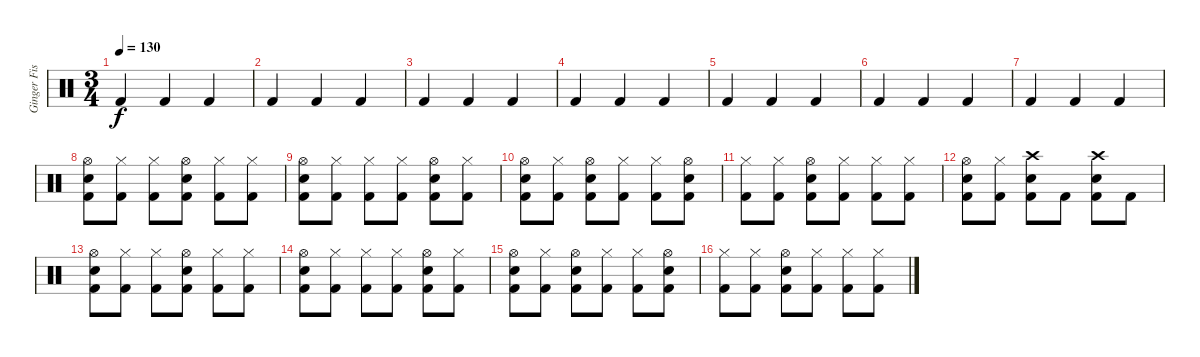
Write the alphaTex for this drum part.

\track ("Ginger Fish" "Ginger Fis") {instrument percussion}
\staff {score}
\articulation defaults
\ts (3 4)
\tempo 130
\clef neutral
\ks c "Kick (hit) 2".4{dy f} "Kick (hit) 2".4 "Kick (hit) 2".4
|
"Kick (hit) 2".4 "Kick (hit) 2".4 "Kick (hit) 2".4 |
"Kick (hit) 2".4 "Kick (hit) 2".4 "Kick (hit) 2".4 |
"Kick (hit) 2".4 "Kick (hit) 2".4 "Kick (hit) 2".4 |
"Kick (hit) 2".4 "Kick (hit) 2".4 "Kick (hit) 2".4 |
"Kick (hit) 2".4 "Kick (hit) 2".4 "Kick (hit) 2".4 |
"Kick (hit) 2".4 "Kick (hit) 2".4 "Kick (hit) 2".4 |
("Hi-Hat (open)" "Snare (hit) 2" "Kick (hit) 2").8 ("Hi-Hat (closed)" "Kick (hit) 2").8 ("Hi-Hat (closed)" "Kick (hit) 2").8 ("Hi-Hat (open)" "Snare (hit) 2" "Kick (hit) 2").8 ("Hi-Hat (closed)" "Kick (hit) 2").8 ("Hi-Hat (closed)" "Kick (hit) 2").8 |
("Hi-Hat (open)" "Snare (hit) 2" "Kick (hit) 2").8 ("Hi-Hat (closed)" "Kick (hit) 2").8 ("Hi-Hat (closed)" "Kick (hit) 2").8 ("Hi-Hat (closed)" "Kick (hit) 2").8 ("Hi-Hat (open)" "Snare (hit) 2" "Kick (hit) 2").8 ("Hi-Hat (closed)" "Kick (hit) 2").8 |
("Hi-Hat (open)" "Snare (hit) 2" "Kick (hit) 2").8 ("Hi-Hat (closed)" "Kick (hit) 2").8 ("Hi-Hat (open)" "Snare (hit) 2" "Kick (hit) 2").8 ("Hi-Hat (closed)" "Kick (hit) 2").8 ("Hi-Hat (closed)" "Kick (hit) 2").8 ("Hi-Hat (open)" "Snare (hit) 2" "Kick (hit) 2").8 |
("Hi-Hat (closed)" "Kick (hit) 2").8 ("Hi-Hat (closed)" "Kick (hit) 2").8 ("Hi-Hat (open)" "Snare (hit) 2" "Kick (hit) 2").8 ("Hi-Hat (closed)" "Kick (hit) 2").8 ("Hi-Hat (closed)" "Kick (hit) 2").8 ("Hi-Hat (closed)" "Kick (hit) 2").8 |
("Hi-Hat (open)" "Snare (hit) 2" "Kick (hit) 2").8 ("Hi-Hat (closed)" "Kick (hit) 2").8 ("Crash high (hit)" "Snare (hit) 2" "Kick (hit) 2").8 "Kick (hit) 2".8 ("Crash high (hit)" "Snare (hit) 2" "Kick (hit) 2").8 "Kick (hit) 2".8 |
("Hi-Hat (open)" "Snare (hit) 2" "Kick (hit) 2").8 ("Hi-Hat (closed)" "Kick (hit) 2").8 ("Hi-Hat (closed)" "Kick (hit) 2").8 ("Hi-Hat (open)" "Snare (hit) 2" "Kick (hit) 2").8 ("Hi-Hat (closed)" "Kick (hit) 2").8 ("Hi-Hat (closed)" "Kick (hit) 2").8 |
("Hi-Hat (open)" "Snare (hit) 2" "Kick (hit) 2").8 ("Hi-Hat (closed)" "Kick (hit) 2").8 ("Hi-Hat (closed)" "Kick (hit) 2").8 ("Hi-Hat (closed)" "Kick (hit) 2").8 ("Hi-Hat (open)" "Snare (hit) 2" "Kick (hit) 2").8 ("Hi-Hat (closed)" "Kick (hit) 2").8 |
("Hi-Hat (open)" "Snare (hit) 2" "Kick (hit) 2").8 ("Hi-Hat (closed)" "Kick (hit) 2").8 ("Hi-Hat (open)" "Snare (hit) 2" "Kick (hit) 2").8 ("Hi-Hat (closed)" "Kick (hit) 2").8 ("Hi-Hat (closed)" "Kick (hit) 2").8 ("Hi-Hat (open)" "Snare (hit) 2" "Kick (hit) 2").8 |
("Hi-Hat (closed)" "Kick (hit) 2").8 ("Hi-Hat (closed)" "Kick (hit) 2").8 ("Hi-Hat (open)" "Snare (hit) 2" "Kick (hit) 2").8 ("Hi-Hat (closed)" "Kick (hit) 2").8 ("Hi-Hat (closed)" "Kick (hit) 2").8 ("Hi-Hat (closed)" "Kick (hit) 2").8
